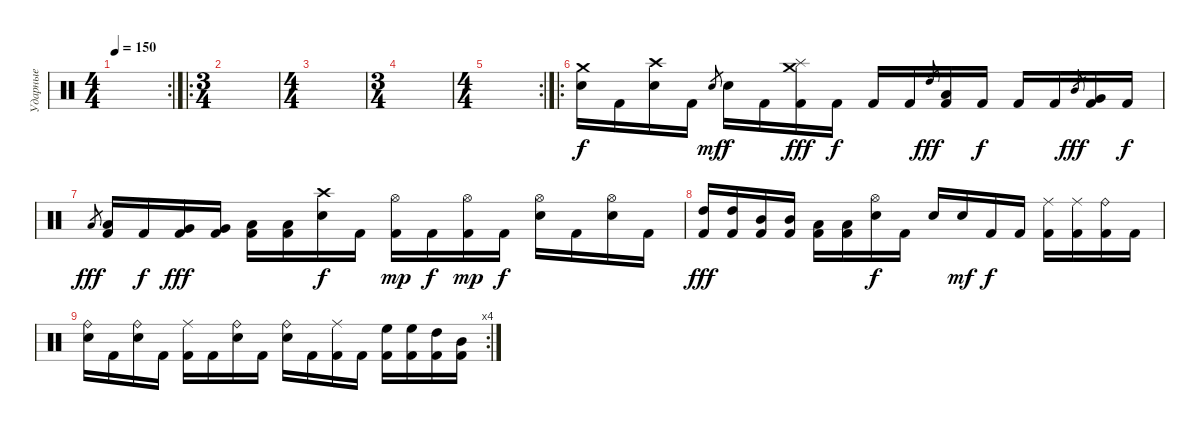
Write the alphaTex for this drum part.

\track ("Ударные" "Ударные") {instrument percussion}
\staff {score}
\articulation defaults
\rc 2
\ts (4 4)
\tempo 150
\clef neutral
\ks c
|
\ro
\ts (3 4)
|
\ts (4 4)
|
\ts (3 4)
|
\rc 2
\ts (4 4)
|
\ro
("Crash medium (hit)" "Electric Snare (hit)").16 "Kick (hit) 2".16 ("Crash high (hit)" "Electric Snare (hit)").16 "Kick (hit) 2".16 "Electric Snare (hit)".8{gr dy mf} "Electric Snare (hit)".16{dy f} "Kick (hit) 2".16 ("Crash medium (hit)" "Splash (hit)" "Kick (hit) 2").16{dy fff} "Kick (hit) 2".16{dy f} "Kick (hit) 2".16 "Kick (hit) 2".16 "High Tom (hit)".8{gr dy fff} ("Low Tom (hit)" "Kick (hit) 2").16 "Kick (hit) 2".16{dy f} "Kick (hit) 2".16 "Kick (hit) 2".16 "Mid Tom (hit)".8{gr dy fff} ("Very Low Tom (hit)" "Kick (hit) 2").16 "Kick (hit) 2".16{dy f} |
"Low Tom (hit)".8{gr dy fff} ("Low Floor Tom (hit)" "Kick (hit) 2").16 "Kick (hit) 2".16{dy f} ("Very Low Tom (hit)" "Kick (hit) 2").16{dy fff} ("Very Low Tom (hit)" "Kick (hit) 2").16 ("Low Floor Tom (hit)" "Kick (hit) 2").16 ("Low Floor Tom (hit)" "Kick (hit) 2").16 ("Crash high (hit)" "Electric Snare (hit)").16{dy f} "Kick (hit) 2".16 ("Hi-Hat (open)" "Kick (hit) 2").16{dy mp} "Kick (hit) 2".16{dy f} ("Hi-Hat (open)" "Kick (hit) 2").16{dy mp} "Kick (hit) 2".16{dy f} ("Hi-Hat (open)" "Electric Snare (hit)").16 "Kick (hit) 2".16 ("Hi-Hat (open)" "Electric Snare (hit)").16 "Kick (hit) 2".16 |
("High Tom (hit)" "Kick (hit) 2").16{dy fff} ("High Tom (hit)" "Kick (hit) 2").16 ("Mid Tom (hit)" "Kick (hit) 2").16 ("Mid Tom (hit)" "Kick (hit) 2").16 ("Low Tom (hit)" "Kick (hit) 2").16 ("Low Tom (hit)" "Kick (hit) 2").16 ("Hi-Hat (open)" "Electric Snare (hit)").16{dy f} "Kick (hit) 2".16 "Electric Snare (hit)".16 "Electric Snare (hit)".16{dy mf} "Kick (hit) 2".16{dy f} "Kick (hit) 2".16 ("Ride (middle)" "Kick (hit) 2").16 ("Ride (middle)" "Kick (hit) 2").16 ("Ride (bell)" "Kick (hit) 2").16 "Kick (hit) 2".16 |
\rc 4
("Ride (bell)" "Electric Snare (hit)").16 "Kick (hit) 2".16 ("Ride (bell)" "Electric Snare (hit)").16 "Kick (hit) 2".16 ("Ride (middle)" "Kick (hit) 2").16 "Kick (hit) 2".16 ("Ride (bell)" "Electric Snare (hit)").16 "Kick (hit) 2".16 ("Ride (bell)" "Electric Snare (hit)").16 "Kick (hit) 2".16 ("Ride (middle)" "Kick (hit) 2").16 "Kick (hit) 2".16 ("High Floor Tom (hit)" "Kick (hit) 2").16 ("High Floor Tom (hit)" "Kick (hit) 2").16 ("High Tom (hit)" "Kick (hit) 2").16 ("Mid Tom (hit)" "Kick (hit) 2").16
